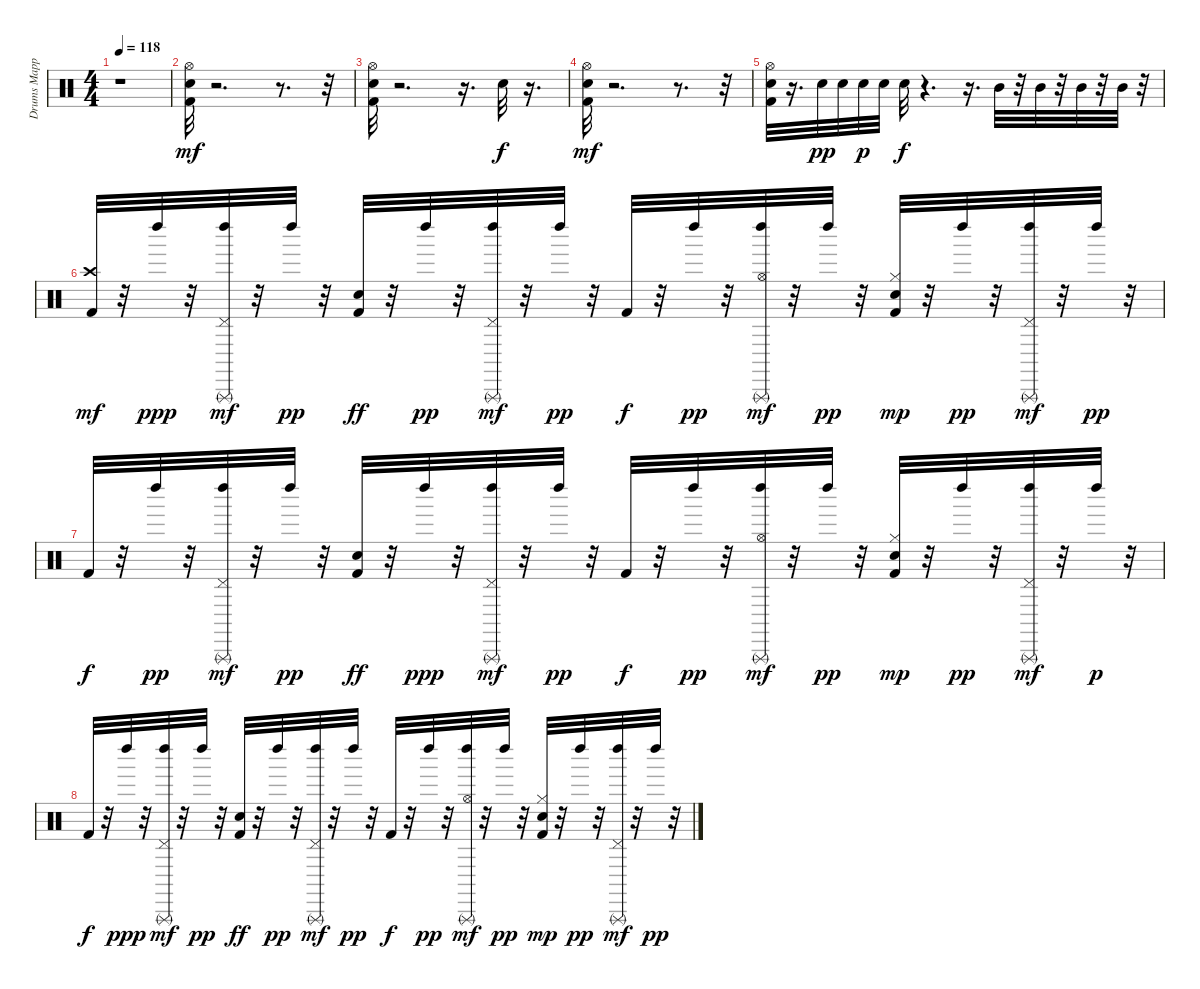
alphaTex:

\track ("Drums Mapped*merged" "Drums Mapp") {instrument percussion}
\staff {score}
\articulation defaults
\ts (4 4)
\tempo 118
\clef neutral
\ks c
r.1{dy mf} |
("Kick (hit) 2" "Snare (hit) 2" "Hi-Hat (open)").32 r.2{d} r.8{d} r.32 |
("Kick (hit) 2" "Snare (hit) 2" "Hi-Hat (open)").32 r.2{d} r.16{d} "Snare (hit) 2".32{dy f} r.16{d} |
("Kick (hit) 2" "Snare (hit) 2" "Hi-Hat (open)").32{dy mf} r.2{d} r.8{d} r.32 |
("Kick (hit) 2" "Snare (hit) 2" "Hi-Hat (open)").32 r.16{d} "Electric Snare (hit)".32{dy pp} "Electric Snare (hit)".32 "Electric Snare (hit)".32{dy p} "Electric Snare (hit)".32 "Electric Snare (hit)".32{dy f} r.4{d} r.16{d} "Mid Tom (hit)".32 r.32 "Mid Tom (hit)".32 r.32 "Mid Tom (hit)".32 r.32 "Mid Tom (hit)".32 r.32 |
("Kick (hit) 2" "Crash high (hit)").32{dy mf} r.32 "Left Maraca (hit)".32{dy ppp} r.32 ("Pedal Hi-Hat (hit)" "Left Maraca (hit)" "Triangle (rnute)").32{dy mf} r.32 "Left Maraca (hit)".32{dy pp} r.32 ("Kick (hit) 2" "Snare (hit) 2").32{dy ff} r.32 "Left Maraca (hit)".32{dy pp} r.32 ("Pedal Hi-Hat (hit)" "Left Maraca (hit)" "Triangle (rnute)").32{dy mf} r.32 "Left Maraca (hit)".32{dy pp} r.32 "Kick (hit) 2".32{dy f} r.32 "Left Maraca (hit)".32{dy pp} r.32 ("Hi-Hat (open)" "Left Maraca (hit)" "Triangle (rnute)").32{dy mf} r.32 "Left Maraca (hit)".32{dy pp} r.32 ("Kick (hit) 2" "Snare (hit) 2" "Hi-Hat (closed)").32{dy mp} r.32 "Left Maraca (hit)".32{dy pp} r.32 ("Pedal Hi-Hat (hit)" "Left Maraca (hit)" "Triangle (rnute)").32{dy mf} r.32 "Left Maraca (hit)".32{dy pp} r.32 |
"Kick (hit) 2".32{dy f} r.32 "Left Maraca (hit)".32{dy pp} r.32 ("Pedal Hi-Hat (hit)" "Left Maraca (hit)" "Triangle (rnute)").32{dy mf} r.32 "Left Maraca (hit)".32{dy pp} r.32 ("Kick (hit) 2" "Snare (hit) 2").32{dy ff} r.32 "Left Maraca (hit)".32{dy ppp} r.32 ("Pedal Hi-Hat (hit)" "Left Maraca (hit)" "Triangle (rnute)").32{dy mf} r.32 "Left Maraca (hit)".32{dy pp} r.32 "Kick (hit) 2".32{dy f} r.32 "Left Maraca (hit)".32{dy pp} r.32 ("Hi-Hat (open)" "Left Maraca (hit)" "Triangle (rnute)").32{dy mf} r.32 "Left Maraca (hit)".32{dy pp} r.32 ("Kick (hit) 2" "Snare (hit) 2" "Hi-Hat (closed)").32{dy mp} r.32 "Left Maraca (hit)".32{dy pp} r.32 ("Pedal Hi-Hat (hit)" "Left Maraca (hit)" "Triangle (rnute)").32{dy mf} r.32 "Left Maraca (hit)".32{dy p} r.32 |
"Kick (hit) 2".32{dy f} r.32 "Left Maraca (hit)".32{dy ppp} r.32 ("Pedal Hi-Hat (hit)" "Left Maraca (hit)" "Triangle (rnute)").32{dy mf} r.32 "Left Maraca (hit)".32{dy pp} r.32 ("Kick (hit) 2" "Snare (hit) 2").32{dy ff} r.32 "Left Maraca (hit)".32{dy pp} r.32 ("Pedal Hi-Hat (hit)" "Left Maraca (hit)" "Triangle (rnute)").32{dy mf} r.32 "Left Maraca (hit)".32{dy pp} r.32 "Kick (hit) 2".32{dy f} r.32 "Left Maraca (hit)".32{dy pp} r.32 ("Hi-Hat (open)" "Left Maraca (hit)" "Triangle (rnute)").32{dy mf} r.32 "Left Maraca (hit)".32{dy pp} r.32 ("Kick (hit) 2" "Snare (hit) 2" "Hi-Hat (closed)").32{dy mp} r.32 "Left Maraca (hit)".32{dy pp} r.32 ("Pedal Hi-Hat (hit)" "Left Maraca (hit)" "Triangle (rnute)").32{dy mf} r.32 "Left Maraca (hit)".32{dy pp} r.32
